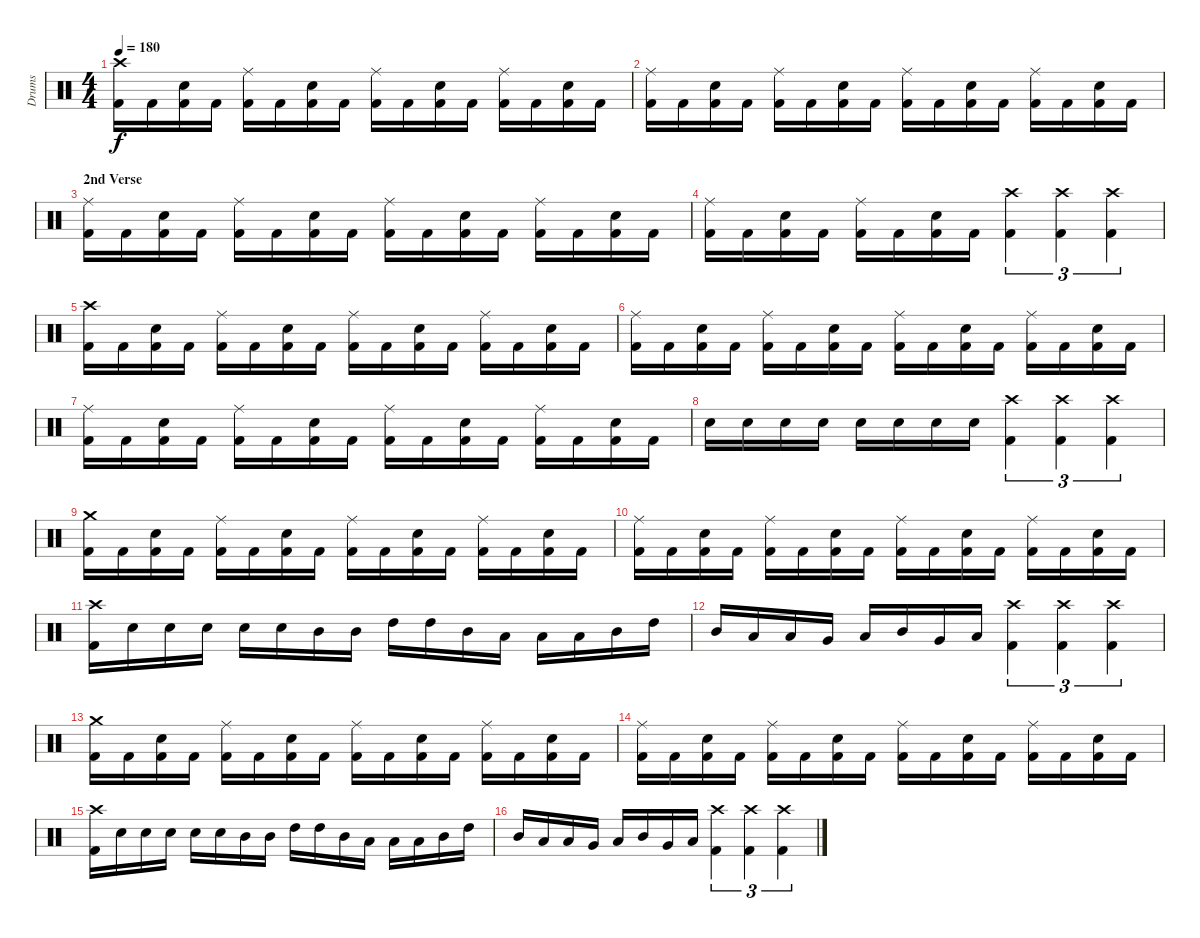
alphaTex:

\track ("Drums" "Drums") {instrument percussion}
\staff {score}
\articulation defaults
\ts (4 4)
\tempo 180
\clef neutral
\ks c
("Crash high (hit)" "Kick (hit) 2").16{dy f} "Kick (hit) 2".16 ("Electric Snare (hit)" "Kick (hit) 2").16 "Kick (hit) 2".16 ("Ride (middle)" "Kick (hit) 2").16 "Kick (hit) 2".16 ("Electric Snare (hit)" "Kick (hit) 2").16 "Kick (hit) 2".16 ("Ride (middle)" "Kick (hit) 2").16 "Kick (hit) 2".16 ("Electric Snare (hit)" "Kick (hit) 2").16 "Kick (hit) 2".16 ("Ride (middle)" "Kick (hit) 2").16 "Kick (hit) 2".16 ("Electric Snare (hit)" "Kick (hit) 2").16 "Kick (hit) 2".16 |
("Ride (middle)" "Kick (hit) 2").16 "Kick (hit) 2".16 ("Electric Snare (hit)" "Kick (hit) 2").16 "Kick (hit) 2".16 ("Ride (middle)" "Kick (hit) 2").16 "Kick (hit) 2".16 ("Electric Snare (hit)" "Kick (hit) 2").16 "Kick (hit) 2".16 ("Ride (middle)" "Kick (hit) 2").16 "Kick (hit) 2".16 ("Electric Snare (hit)" "Kick (hit) 2").16 "Kick (hit) 2".16 ("Ride (middle)" "Kick (hit) 2").16 "Kick (hit) 2".16 ("Electric Snare (hit)" "Kick (hit) 2").16 "Kick (hit) 2".16 |
\section ("" "2nd Verse")
("Ride (middle)" "Kick (hit) 2").16 "Kick (hit) 2".16 ("Electric Snare (hit)" "Kick (hit) 2").16 "Kick (hit) 2".16 ("Ride (middle)" "Kick (hit) 2").16 "Kick (hit) 2".16 ("Electric Snare (hit)" "Kick (hit) 2").16 "Kick (hit) 2".16 ("Ride (middle)" "Kick (hit) 2").16 "Kick (hit) 2".16 ("Electric Snare (hit)" "Kick (hit) 2").16 "Kick (hit) 2".16 ("Ride (middle)" "Kick (hit) 2").16 "Kick (hit) 2".16 ("Electric Snare (hit)" "Kick (hit) 2").16 "Kick (hit) 2".16 |
("Ride (middle)" "Kick (hit) 2").16 "Kick (hit) 2".16 ("Electric Snare (hit)" "Kick (hit) 2").16 "Kick (hit) 2".16 ("Ride (middle)" "Kick (hit) 2").16 "Kick (hit) 2".16 ("Electric Snare (hit)" "Kick (hit) 2").16 "Kick (hit) 2".16 ("Crash high (hit)" "Kick (hit) 2").4{tu (3 2)} ("Crash high (hit)" "Kick (hit) 2").4{tu (3 2)} ("Crash high (hit)" "Kick (hit) 2").4{tu (3 2)} |
("Crash high (hit)" "Kick (hit) 2").16 "Kick (hit) 2".16 ("Electric Snare (hit)" "Kick (hit) 2").16 "Kick (hit) 2".16 ("Ride (middle)" "Kick (hit) 2").16 "Kick (hit) 2".16 ("Electric Snare (hit)" "Kick (hit) 2").16 "Kick (hit) 2".16 ("Ride (middle)" "Kick (hit) 2").16 "Kick (hit) 2".16 ("Electric Snare (hit)" "Kick (hit) 2").16 "Kick (hit) 2".16 ("Ride (middle)" "Kick (hit) 2").16 "Kick (hit) 2".16 ("Electric Snare (hit)" "Kick (hit) 2").16 "Kick (hit) 2".16 |
("Ride (middle)" "Kick (hit) 2").16 "Kick (hit) 2".16 ("Electric Snare (hit)" "Kick (hit) 2").16 "Kick (hit) 2".16 ("Ride (middle)" "Kick (hit) 2").16 "Kick (hit) 2".16 ("Electric Snare (hit)" "Kick (hit) 2").16 "Kick (hit) 2".16 ("Ride (middle)" "Kick (hit) 2").16 "Kick (hit) 2".16 ("Electric Snare (hit)" "Kick (hit) 2").16 "Kick (hit) 2".16 ("Ride (middle)" "Kick (hit) 2").16 "Kick (hit) 2".16 ("Electric Snare (hit)" "Kick (hit) 2").16 "Kick (hit) 2".16 |
("Ride (middle)" "Kick (hit) 2").16 "Kick (hit) 2".16 ("Electric Snare (hit)" "Kick (hit) 2").16 "Kick (hit) 2".16 ("Ride (middle)" "Kick (hit) 2").16 "Kick (hit) 2".16 ("Electric Snare (hit)" "Kick (hit) 2").16 "Kick (hit) 2".16 ("Ride (middle)" "Kick (hit) 2").16 "Kick (hit) 2".16 ("Electric Snare (hit)" "Kick (hit) 2").16 "Kick (hit) 2".16 ("Ride (middle)" "Kick (hit) 2").16 "Kick (hit) 2".16 ("Electric Snare (hit)" "Kick (hit) 2").16 "Kick (hit) 2".16 |
"Electric Snare (hit)".16 "Electric Snare (hit)".16 "Electric Snare (hit)".16 "Electric Snare (hit)".16 "Electric Snare (hit)".16 "Electric Snare (hit)".16 "Electric Snare (hit)".16 "Electric Snare (hit)".16 ("Crash high (hit)" "Kick (hit) 2").4{tu (3 2)} ("Crash high (hit)" "Kick (hit) 2").4{tu (3 2)} ("Crash high (hit)" "Kick (hit) 2").4{tu (3 2)} |
("Crash medium (hit)" "Kick (hit) 2").16 "Kick (hit) 2".16 ("Electric Snare (hit)" "Kick (hit) 2").16 "Kick (hit) 2".16 ("Ride (middle)" "Kick (hit) 2").16 "Kick (hit) 2".16 ("Electric Snare (hit)" "Kick (hit) 2").16 "Kick (hit) 2".16 ("Ride (middle)" "Kick (hit) 2").16 "Kick (hit) 2".16 ("Electric Snare (hit)" "Kick (hit) 2").16 "Kick (hit) 2".16 ("Ride (middle)" "Kick (hit) 2").16 "Kick (hit) 2".16 ("Electric Snare (hit)" "Kick (hit) 2").16 "Kick (hit) 2".16 |
("Ride (middle)" "Kick (hit) 2").16 "Kick (hit) 2".16 ("Electric Snare (hit)" "Kick (hit) 2").16 "Kick (hit) 2".16 ("Ride (middle)" "Kick (hit) 2").16 "Kick (hit) 2".16 ("Electric Snare (hit)" "Kick (hit) 2").16 "Kick (hit) 2".16 ("Ride (middle)" "Kick (hit) 2").16 "Kick (hit) 2".16 ("Electric Snare (hit)" "Kick (hit) 2").16 "Kick (hit) 2".16 ("Ride (middle)" "Kick (hit) 2").16 "Kick (hit) 2".16 ("Electric Snare (hit)" "Kick (hit) 2").16 "Kick (hit) 2".16 |
("Crash high (hit)" "Kick (hit) 2").16 "Electric Snare (hit)".16 "Electric Snare (hit)".16 "Electric Snare (hit)".16 "Electric Snare (hit)".16 "Electric Snare (hit)".16 "Mid Tom (hit)".16 "Mid Tom (hit)".16 "High Tom (hit)".16 "High Tom (hit)".16 "Mid Tom (hit)".16 "Low Tom (hit)".16 "Low Tom (hit)".16 "Low Tom (hit)".16 "Mid Tom (hit)".16 "High Tom (hit)".16 |
"Mid Tom (hit)".16 "Low Tom (hit)".16 "Low Tom (hit)".16 "Very Low Tom (hit)".16 "Low Tom (hit)".16 "Mid Tom (hit)".16 "Very Low Tom (hit)".16 "Low Floor Tom (hit)".16 ("Crash high (hit)" "Kick (hit) 2").4{tu (3 2)} ("Crash high (hit)" "Kick (hit) 2").4{tu (3 2)} ("Crash high (hit)" "Kick (hit) 2").4{tu (3 2)} |
("Crash medium (hit)" "Kick (hit) 2").16 "Kick (hit) 2".16 ("Electric Snare (hit)" "Kick (hit) 2").16 "Kick (hit) 2".16 ("Ride (middle)" "Kick (hit) 2").16 "Kick (hit) 2".16 ("Electric Snare (hit)" "Kick (hit) 2").16 "Kick (hit) 2".16 ("Ride (middle)" "Kick (hit) 2").16 "Kick (hit) 2".16 ("Electric Snare (hit)" "Kick (hit) 2").16 "Kick (hit) 2".16 ("Ride (middle)" "Kick (hit) 2").16 "Kick (hit) 2".16 ("Electric Snare (hit)" "Kick (hit) 2").16 "Kick (hit) 2".16 |
("Ride (middle)" "Kick (hit) 2").16 "Kick (hit) 2".16 ("Electric Snare (hit)" "Kick (hit) 2").16 "Kick (hit) 2".16 ("Ride (middle)" "Kick (hit) 2").16 "Kick (hit) 2".16 ("Electric Snare (hit)" "Kick (hit) 2").16 "Kick (hit) 2".16 ("Ride (middle)" "Kick (hit) 2").16 "Kick (hit) 2".16 ("Electric Snare (hit)" "Kick (hit) 2").16 "Kick (hit) 2".16 ("Ride (middle)" "Kick (hit) 2").16 "Kick (hit) 2".16 ("Electric Snare (hit)" "Kick (hit) 2").16 "Kick (hit) 2".16 |
("Crash high (hit)" "Kick (hit) 2").16 "Electric Snare (hit)".16 "Electric Snare (hit)".16 "Electric Snare (hit)".16 "Electric Snare (hit)".16 "Electric Snare (hit)".16 "Mid Tom (hit)".16 "Mid Tom (hit)".16 "High Tom (hit)".16 "High Tom (hit)".16 "Mid Tom (hit)".16 "Low Tom (hit)".16 "Low Tom (hit)".16 "Low Tom (hit)".16 "Mid Tom (hit)".16 "High Tom (hit)".16 |
"Mid Tom (hit)".16 "Low Tom (hit)".16 "Low Tom (hit)".16 "Very Low Tom (hit)".16 "Low Tom (hit)".16 "Mid Tom (hit)".16 "Very Low Tom (hit)".16 "Low Floor Tom (hit)".16 ("Crash high (hit)" "Kick (hit) 2").4{tu (3 2)} ("Crash high (hit)" "Kick (hit) 2").4{tu (3 2)} ("Crash high (hit)" "Kick (hit) 2").4{tu (3 2)}
